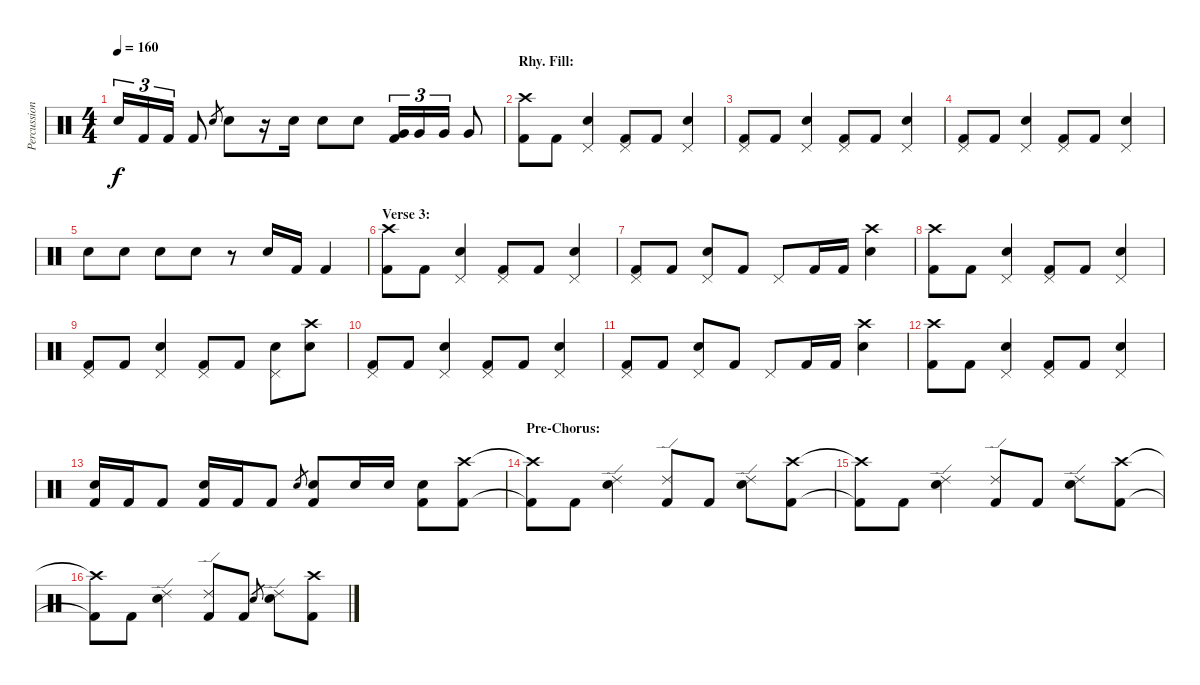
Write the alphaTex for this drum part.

\track ("Percussion" "Percussion") {instrument percussion}
\staff {score}
\articulation defaults
\ts (4 4)
\tempo 160
\clef neutral
\ks c "Snare (hit) 2".16{tu (3 2) dy f} "Kick (hit) 2".16{tu (3 2)} "Kick (hit) 2".16{tu (3 2)} "Kick (hit) 2".8 "Snare (hit) 2".8{gr} "Snare (hit) 2".8
r.16 "Snare (hit) 2".16 "Snare (hit) 2".8 "Snare (hit) 2".8 ("Very Low Tom (hit)" "Kick (hit) 2").16{tu (3 2)} "Very Low Tom (hit)".16{tu (3 2)} "Very Low Tom (hit)".16{tu (3 2)} "Very Low Tom (hit)".8 |
\section ("" "Rhy. Fill:")
("Crash high (hit)" "Kick (hit) 2").8 "Kick (hit) 2".8 ("Pedal Hi-Hat (hit)" "Snare (hit) 2").4 ("Pedal Hi-Hat (hit)" "Kick (hit) 2").8 "Kick (hit) 2".8 ("Pedal Hi-Hat (hit)" "Snare (hit) 2").4 |
("Pedal Hi-Hat (hit)" "Kick (hit) 2").8 "Kick (hit) 2".8 ("Pedal Hi-Hat (hit)" "Snare (hit) 2").4 ("Pedal Hi-Hat (hit)" "Kick (hit) 2").8 "Kick (hit) 2".8 ("Pedal Hi-Hat (hit)" "Snare (hit) 2").4 |
("Pedal Hi-Hat (hit)" "Kick (hit) 2").8 "Kick (hit) 2".8 ("Pedal Hi-Hat (hit)" "Snare (hit) 2").4 ("Pedal Hi-Hat (hit)" "Kick (hit) 2").8 "Kick (hit) 2".8 ("Pedal Hi-Hat (hit)" "Snare (hit) 2").4 |
"Snare (hit) 2".8 "Snare (hit) 2".8 "Snare (hit) 2".8 "Snare (hit) 2".8 r.8 "Snare (hit) 2".16 "Kick (hit) 2".16 "Kick (hit) 2".4 |
\section ("" "Verse 3:")
("Crash high (hit)" "Kick (hit) 2").8 "Kick (hit) 2".8 ("Pedal Hi-Hat (hit)" "Snare (hit) 2").4 ("Pedal Hi-Hat (hit)" "Kick (hit) 2").8 "Kick (hit) 2".8 ("Pedal Hi-Hat (hit)" "Snare (hit) 2").4 |
("Pedal Hi-Hat (hit)" "Kick (hit) 2").8 "Kick (hit) 2".8 ("Pedal Hi-Hat (hit)" "Snare (hit) 2").8 "Kick (hit) 2".8 "Pedal Hi-Hat (hit)".8 "Kick (hit) 2".16 "Kick (hit) 2".16 ("Crash high (hit)" "Snare (hit) 2").4 |
("Crash high (hit)" "Kick (hit) 2").8 "Kick (hit) 2".8 ("Pedal Hi-Hat (hit)" "Snare (hit) 2").4 ("Pedal Hi-Hat (hit)" "Kick (hit) 2").8 "Kick (hit) 2".8 ("Pedal Hi-Hat (hit)" "Snare (hit) 2").4 |
("Pedal Hi-Hat (hit)" "Kick (hit) 2").8 "Kick (hit) 2".8 ("Pedal Hi-Hat (hit)" "Snare (hit) 2").4 ("Pedal Hi-Hat (hit)" "Kick (hit) 2").8 "Kick (hit) 2".8 ("Pedal Hi-Hat (hit)" "Snare (hit) 2").8 ("Crash high (hit)" "Snare (hit) 2").8 |
("Pedal Hi-Hat (hit)" "Kick (hit) 2").8 "Kick (hit) 2".8 ("Pedal Hi-Hat (hit)" "Snare (hit) 2").4 ("Pedal Hi-Hat (hit)" "Kick (hit) 2").8 "Kick (hit) 2".8 ("Pedal Hi-Hat (hit)" "Snare (hit) 2").4 |
("Pedal Hi-Hat (hit)" "Kick (hit) 2").8 "Kick (hit) 2".8 ("Pedal Hi-Hat (hit)" "Snare (hit) 2").8 "Kick (hit) 2".8 "Pedal Hi-Hat (hit)".8 "Kick (hit) 2".16 "Kick (hit) 2".16 ("Crash high (hit)" "Snare (hit) 2").4 |
("Crash high (hit)" "Kick (hit) 2").8 "Kick (hit) 2".8 ("Pedal Hi-Hat (hit)" "Snare (hit) 2").4 ("Pedal Hi-Hat (hit)" "Kick (hit) 2").8 "Kick (hit) 2".8 ("Pedal Hi-Hat (hit)" "Snare (hit) 2").4 |
("Snare (hit) 2" "Kick (hit) 2").16 "Kick (hit) 2".16 "Kick (hit) 2".8 ("Snare (hit) 2" "Kick (hit) 2").16 "Kick (hit) 2".16 "Kick (hit) 2".8 "Snare (hit) 2".8{gr} ("Snare (hit) 2" "Kick (hit) 2").8 "Snare (hit) 2".16 "Snare (hit) 2".16 ("Snare (hit) 2" "Kick (hit) 2").8 ("Crash high (hit)" "Kick (hit) 2").8 |
\section ("" "Pre-Chorus:")
("Crash high (hit)"{t} "Kick (hit) 2"{t}).8 "Kick (hit) 2".8 ("Ride (edge) 2" "Snare (hit) 2").4 ("Ride (edge) 2" "Kick (hit) 2").8 "Kick (hit) 2".8 ("Ride (edge) 2" "Snare (hit) 2").8 ("Crash high (hit)" "Kick (hit) 2").8 |
("Crash high (hit)"{t} "Kick (hit) 2"{t}).8 "Kick (hit) 2".8 ("Ride (edge) 2" "Snare (hit) 2").4 ("Ride (edge) 2" "Kick (hit) 2").8 "Kick (hit) 2".8 ("Ride (edge) 2" "Snare (hit) 2").8 ("Crash high (hit)" "Kick (hit) 2").8 |
("Crash high (hit)"{t} "Kick (hit) 2"{t}).8 "Kick (hit) 2".8 ("Ride (edge) 2" "Snare (hit) 2").4 ("Ride (edge) 2" "Kick (hit) 2").8 "Kick (hit) 2".8 "Snare (hit) 2".8{gr} ("Ride (edge) 2" "Snare (hit) 2").8 ("Crash high (hit)" "Kick (hit) 2").8
